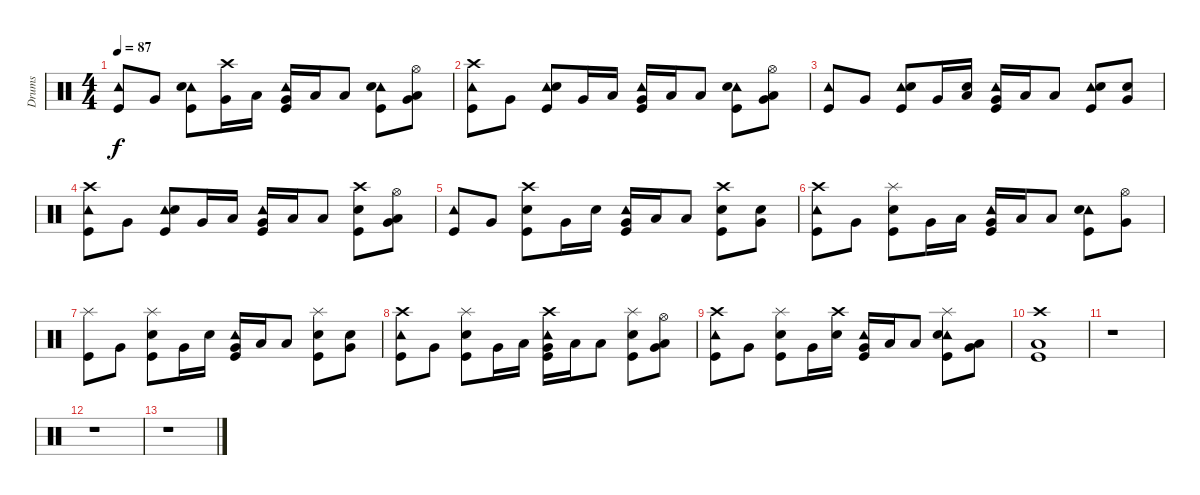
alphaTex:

\track ("Drums" "Drums") {instrument percussion}
\staff {score}
\articulation defaults
\ts (4 4)
\tempo 87
\clef neutral
\ks c
("Tambourine (hit)" "Kick (hit)").8{dy f} "Very Low Tom (hit)".8 ("Tambourine (hit)" "Snare (hit) 2" "Kick (hit)").8 ("Crash high (hit)" "Very Low Tom (hit)").16 "Low Tom (hit)".16 ("Tambourine (hit)" "Very Low Tom (hit)" "Kick (hit)").16 "Low Tom (hit)".16 "Low Floor Tom (hit)".8 ("Tambourine (hit)" "Snare (hit) 2" "Kick (hit)").8 ("Hi-Hat (open)" "Low Tom (hit)" "Very Low Tom (hit)").8 |
("Tambourine (hit)" "Crash high (hit)" "Kick (hit)").8 "Very Low Tom (hit)".8 ("Tambourine (hit)" "Snare (hit) 2" "Kick (hit)").8 "Very Low Tom (hit)".16 "Low Tom (hit)".16 ("Tambourine (hit)" "Very Low Tom (hit)" "Kick (hit)").16 "Low Tom (hit)".16 "Low Floor Tom (hit)".8 ("Tambourine (hit)" "Snare (hit) 2" "Kick (hit)").8 ("Hi-Hat (open)" "Low Tom (hit)" "Very Low Tom (hit)").8 |
("Tambourine (hit)" "Kick (hit)").8 "Very Low Tom (hit)".8 ("Tambourine (hit)" "Snare (hit) 2" "Kick (hit)").8 "Very Low Tom (hit)".16 ("Snare (hit) 2" "Low Tom (hit)").16 ("Tambourine (hit)" "Very Low Tom (hit)" "Kick (hit)").16 "Low Tom (hit)".16 "Low Floor Tom (hit)".8 ("Tambourine (hit)" "Snare (hit) 2" "Kick (hit)").8 ("Snare (hit) 2" "Very Low Tom (hit)").8 |
("Tambourine (hit)" "Crash high (hit)" "Kick (hit)").8 "Very Low Tom (hit)".8 ("Tambourine (hit)" "Snare (hit) 2" "Kick (hit)").8 "Very Low Tom (hit)".16 "Low Tom (hit)".16 ("Tambourine (hit)" "Very Low Tom (hit)" "Kick (hit)").16 "Low Tom (hit)".16 "Low Floor Tom (hit)".8 ("Crash high (hit)" "Snare (hit) 2" "Kick (hit)").8 ("Hi-Hat (open)" "Low Tom (hit)" "Very Low Tom (hit)").8 |
("Tambourine (hit)" "Kick (hit)").8 "Very Low Tom (hit)".8 ("Crash high (hit)" "Snare (hit) 2" "Kick (hit)").8 "Very Low Tom (hit)".16 "Snare (hit) 2".16 ("Tambourine (hit)" "Very Low Tom (hit)" "Kick (hit)").16 "Low Tom (hit)".16 "Low Floor Tom (hit)".8 ("Crash high (hit)" "Snare (hit) 2" "Kick (hit)").8 ("Snare (hit) 2" "Very Low Tom (hit)").8 |
("Tambourine (hit)" "Crash high (hit)" "Kick (hit)").8 "Very Low Tom (hit)".8 ("Splash (hit)" "Snare (hit) 2" "Kick (hit)").8 "Very Low Tom (hit)".16 "Low Tom (hit)".16 ("Tambourine (hit)" "Very Low Tom (hit)" "Kick (hit)").16 "Low Tom (hit)".16 "Low Floor Tom (hit)".8 ("Tambourine (hit)" "Snare (hit) 2" "Kick (hit)").8 ("Hi-Hat (open)" "Very Low Tom (hit)").8 |
("Splash (hit)" "Kick (hit)").8 "Very Low Tom (hit)".8 ("Splash (hit)" "Snare (hit) 2" "Kick (hit)").8 "Very Low Tom (hit)".16 "Snare (hit) 2".16 ("Tambourine (hit)" "Very Low Tom (hit)" "Kick (hit)").16 "Low Tom (hit)".16 "Low Floor Tom (hit)".8 ("Splash (hit)" "Snare (hit) 2" "Kick (hit)").8 ("Snare (hit) 2" "Very Low Tom (hit)").8 |
("Tambourine (hit)" "Crash high (hit)" "Kick (hit)").8 "Very Low Tom (hit)".8 ("Splash (hit)" "Snare (hit) 2" "Kick (hit)").8 "Very Low Tom (hit)".16 "Low Tom (hit)".16 ("Tambourine (hit)" "Crash high (hit)" "Very Low Tom (hit)" "Kick (hit)").16 "Low Tom (hit)".16 "Low Floor Tom (hit)".8 ("Splash (hit)" "Snare (hit) 2" "Kick (hit)").8 ("Hi-Hat (open)" "Low Tom (hit)" "Very Low Tom (hit)").8 |
("Tambourine (hit)" "Crash high (hit)" "Kick (hit)").8 "Very Low Tom (hit)".8 ("Splash (hit)" "Snare (hit) 2" "Kick (hit)").8 "Very Low Tom (hit)".16 ("Crash high (hit)" "Snare (hit) 2").16 ("Tambourine (hit)" "Very Low Tom (hit)" "Kick (hit)").16 "Low Tom (hit)".16 "Low Floor Tom (hit)".8 ("Tambourine (hit)" "Snare (hit) 2" "Splash (hit)" "Kick (hit)").8 ("Low Tom (hit)" "Very Low Tom (hit)").8 |
("Crash high (hit)" "Low Floor Tom (hit)" "Kick (hit)").1 |
r.1 |
r.1 |
r.1
